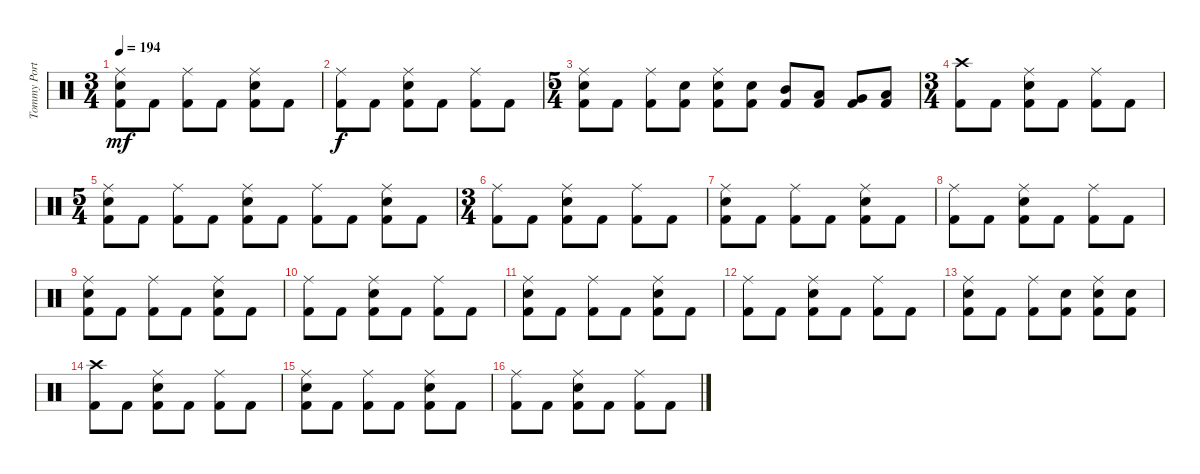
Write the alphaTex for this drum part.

\track ("Tommy Portino" "Tommy Port") {instrument percussion}
\staff {score}
\articulation defaults
\ts (3 4)
\tempo 194
\clef neutral
\ks c
("Ride (middle)" "Snare (hit) 2" "Kick (hit) 2").8{dy mf} "Kick (hit) 2".8 ("Ride (middle)" "Kick (hit) 2").8 "Kick (hit) 2".8 ("Ride (middle)" "Snare (hit) 2" "Kick (hit) 2").8 "Kick (hit) 2".8 |
("Ride (middle)" "Kick (hit) 2").8{dy f} "Kick (hit) 2".8 ("Ride (middle)" "Snare (hit) 2" "Kick (hit) 2").8 "Kick (hit) 2".8 ("Ride (middle)" "Kick (hit) 2").8 "Kick (hit) 2".8 |
\ts (5 4)
("Ride (middle)" "Snare (hit) 2" "Kick (hit) 2").8 "Kick (hit) 2".8 ("Ride (middle)" "Kick (hit) 2").8 ("Snare (hit) 2" "Kick (hit) 2").8 ("Ride (middle)" "Snare (hit) 2" "Kick (hit) 2").8 ("Snare (hit) 2" "Kick (hit) 2").8 ("Mid Tom (hit)" "Kick (hit) 2").8 ("Low Tom (hit)" "Kick (hit) 2").8 ("Very Low Tom (hit)" "Kick (hit) 2").8 ("Low Floor Tom (hit)" "Kick (hit) 2").8 |
\ts (3 4)
("Crash high (hit)" "Kick (hit) 2").8 "Kick (hit) 2".8 ("Ride (middle)" "Snare (hit) 2" "Kick (hit) 2").8 "Kick (hit) 2".8 ("Ride (middle)" "Kick (hit) 2").8 "Kick (hit) 2".8 |
\ts (5 4)
("Ride (middle)" "Snare (hit) 2" "Kick (hit) 2").8 "Kick (hit) 2".8 ("Ride (middle)" "Kick (hit) 2").8 "Kick (hit) 2".8 ("Ride (middle)" "Snare (hit) 2" "Kick (hit) 2").8 "Kick (hit) 2".8 ("Ride (middle)" "Kick (hit) 2").8 "Kick (hit) 2".8 ("Ride (middle)" "Snare (hit) 2" "Kick (hit) 2").8 "Kick (hit) 2".8 |
\ts (3 4)
("Ride (middle)" "Kick (hit) 2").8 "Kick (hit) 2".8 ("Ride (middle)" "Snare (hit) 2" "Kick (hit) 2").8 "Kick (hit) 2".8 ("Ride (middle)" "Kick (hit) 2").8 "Kick (hit) 2".8 |
("Ride (middle)" "Snare (hit) 2" "Kick (hit) 2").8 "Kick (hit) 2".8 ("Ride (middle)" "Kick (hit) 2").8 "Kick (hit) 2".8 ("Ride (middle)" "Snare (hit) 2" "Kick (hit) 2").8 "Kick (hit) 2".8 |
("Ride (middle)" "Kick (hit) 2").8 "Kick (hit) 2".8 ("Ride (middle)" "Snare (hit) 2" "Kick (hit) 2").8 "Kick (hit) 2".8 ("Ride (middle)" "Kick (hit) 2").8 "Kick (hit) 2".8 |
("Ride (middle)" "Snare (hit) 2" "Kick (hit) 2").8 "Kick (hit) 2".8 ("Ride (middle)" "Kick (hit) 2").8 "Kick (hit) 2".8 ("Ride (middle)" "Snare (hit) 2" "Kick (hit) 2").8 "Kick (hit) 2".8 |
("Ride (middle)" "Kick (hit) 2").8 "Kick (hit) 2".8 ("Ride (middle)" "Snare (hit) 2" "Kick (hit) 2").8 "Kick (hit) 2".8 ("Ride (middle)" "Kick (hit) 2").8 "Kick (hit) 2".8 |
("Ride (middle)" "Snare (hit) 2" "Kick (hit) 2").8 "Kick (hit) 2".8 ("Ride (middle)" "Kick (hit) 2").8 "Kick (hit) 2".8 ("Ride (middle)" "Snare (hit) 2" "Kick (hit) 2").8 "Kick (hit) 2".8 |
("Ride (middle)" "Kick (hit) 2").8 "Kick (hit) 2".8 ("Ride (middle)" "Snare (hit) 2" "Kick (hit) 2").8 "Kick (hit) 2".8 ("Ride (middle)" "Kick (hit) 2").8 "Kick (hit) 2".8 |
("Ride (middle)" "Snare (hit) 2" "Kick (hit) 2").8 "Kick (hit) 2".8 ("Ride (middle)" "Kick (hit) 2").8 ("Snare (hit) 2" "Kick (hit) 2").8 ("Ride (middle)" "Snare (hit) 2" "Kick (hit) 2").8 ("Snare (hit) 2" "Kick (hit) 2").8 |
("Crash high (hit)" "Kick (hit) 2").8 "Kick (hit) 2".8 ("Ride (middle)" "Snare (hit) 2" "Kick (hit) 2").8 "Kick (hit) 2".8 ("Ride (middle)" "Kick (hit) 2").8 "Kick (hit) 2".8 |
("Ride (middle)" "Snare (hit) 2" "Kick (hit) 2").8 "Kick (hit) 2".8 ("Ride (middle)" "Kick (hit) 2").8 "Kick (hit) 2".8 ("Ride (middle)" "Snare (hit) 2" "Kick (hit) 2").8 "Kick (hit) 2".8 |
("Ride (middle)" "Kick (hit) 2").8 "Kick (hit) 2".8 ("Ride (middle)" "Snare (hit) 2" "Kick (hit) 2").8 "Kick (hit) 2".8 ("Ride (middle)" "Kick (hit) 2").8 "Kick (hit) 2".8
